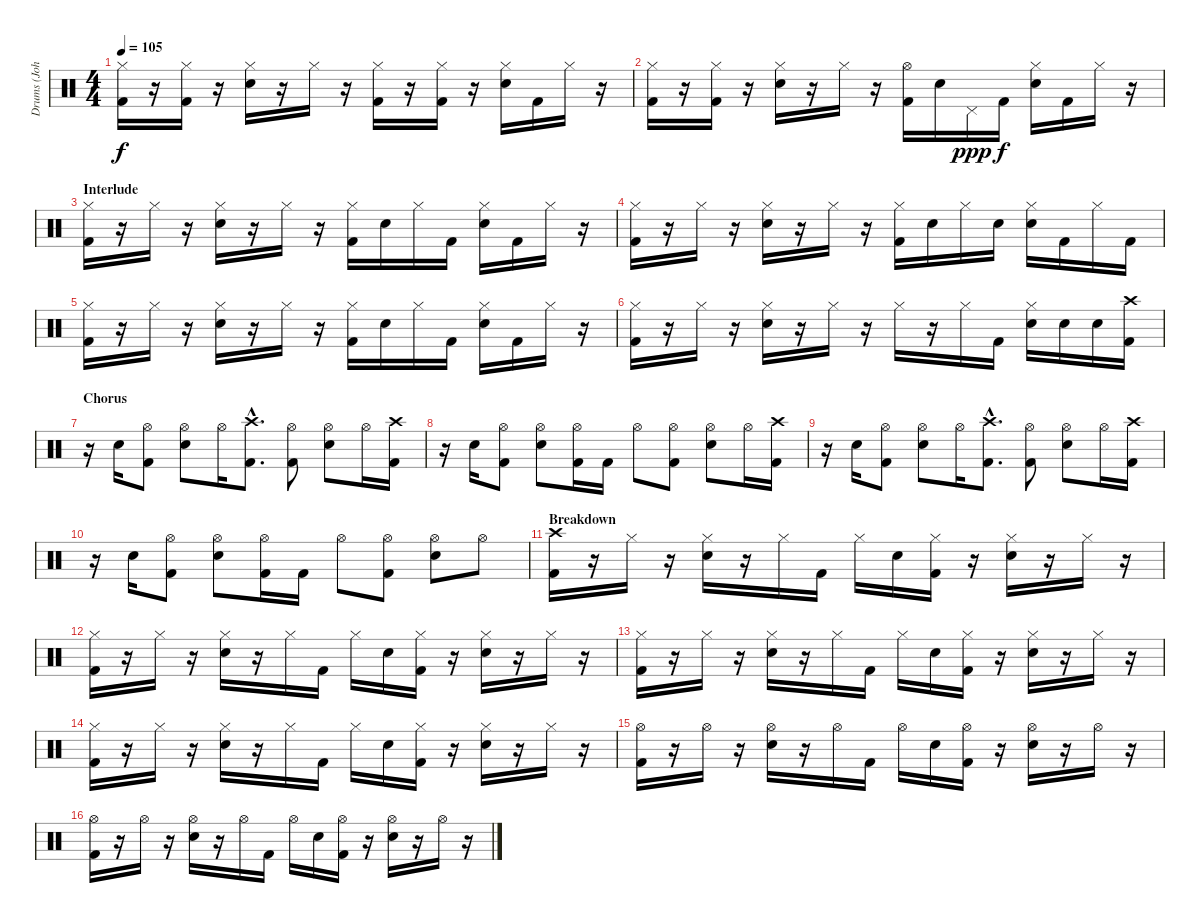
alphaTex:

\track ("Drums (John Otto)" "Drums (Joh") {instrument percussion}
\staff {score}
\articulation defaults
\ts (4 4)
\tempo 105
\clef neutral
\ks c
("Hi-Hat (closed)" "Kick (hit) 2").16{dy f} r.16 ("Hi-Hat (closed)" "Kick (hit) 2").16 r.16 ("Hi-Hat (closed)" "Electric Snare (hit)").16 r.16 "Hi-Hat (closed)".16 r.16 ("Hi-Hat (closed)" "Kick (hit) 2").16 r.16 ("Hi-Hat (closed)" "Kick (hit) 2").16 r.16 ("Hi-Hat (closed)" "Electric Snare (hit)").16 "Kick (hit) 2".16 "Hi-Hat (closed)".16 r.16 |
("Hi-Hat (closed)" "Kick (hit) 2").16 r.16 ("Hi-Hat (closed)" "Kick (hit) 2").16 r.16 ("Hi-Hat (closed)" "Electric Snare (hit)").16 r.16 "Hi-Hat (closed)".16 r.16 ("Hi-Hat (open)" "Kick (hit) 2").16 "Electric Snare (hit)".16 "Pedal Hi-Hat (hit)".16{dy ppp} "Kick (hit) 2".16{dy f} ("Hi-Hat (closed)" "Electric Snare (hit)").16 "Kick (hit) 2".16 "Hi-Hat (closed)".16 r.16 |
\section ("" "Interlude")
("Hi-Hat (closed)" "Kick (hit) 2").16 r.16 "Hi-Hat (closed)".16 r.16 ("Hi-Hat (closed)" "Electric Snare (hit)").16 r.16 "Hi-Hat (closed)".16 r.16 ("Hi-Hat (closed)" "Kick (hit) 2").16 "Electric Snare (hit)".16 "Hi-Hat (closed)".16 "Kick (hit) 2".16 ("Hi-Hat (closed)" "Electric Snare (hit)").16 "Kick (hit) 2".16 "Hi-Hat (closed)".16 r.16 |
("Hi-Hat (closed)" "Kick (hit) 2").16 r.16 "Hi-Hat (closed)".16 r.16 ("Hi-Hat (closed)" "Electric Snare (hit)").16 r.16 "Hi-Hat (closed)".16 r.16 ("Hi-Hat (closed)" "Kick (hit) 2").16 "Electric Snare (hit)".16 "Hi-Hat (closed)".16 "Electric Snare (hit)".16 ("Hi-Hat (closed)" "Electric Snare (hit)").16 "Kick (hit) 2".16 "Hi-Hat (closed)".16 "Kick (hit) 2".16 |
("Hi-Hat (closed)" "Kick (hit) 2").16 r.16 "Hi-Hat (closed)".16 r.16 ("Hi-Hat (closed)" "Electric Snare (hit)").16 r.16 "Hi-Hat (closed)".16 r.16 ("Hi-Hat (closed)" "Kick (hit) 2").16 "Electric Snare (hit)".16 "Hi-Hat (closed)".16 "Kick (hit) 2".16 ("Hi-Hat (closed)" "Electric Snare (hit)").16 "Kick (hit) 2".16 "Hi-Hat (closed)".16 r.16 |
("Hi-Hat (closed)" "Kick (hit) 2").16 r.16 "Hi-Hat (closed)".16 r.16 ("Hi-Hat (closed)" "Electric Snare (hit)").16 r.16 "Hi-Hat (closed)".16 r.16 "Hi-Hat (closed)".16 r.16 "Hi-Hat (closed)".16 "Kick (hit) 2".16 ("Hi-Hat (closed)" "Electric Snare (hit)").16 "Electric Snare (hit)".16 "Electric Snare (hit)".16 ("Crash high (hit)" "Kick (hit) 2").16 |
\section ("" "Chorus")
r.16 "Electric Snare (hit)".16 ("Hi-Hat (open)" "Kick (hit) 2").8 ("Hi-Hat (open)" "Electric Snare (hit)").8 "Hi-Hat (open)".16 ("Crash high (hit)"{hac} "Kick (hit) 2"{hac}).8{d} ("Hi-Hat (open)" "Kick (hit) 2").8 ("Hi-Hat (open)" "Electric Snare (hit)").8 "Hi-Hat (open)".16 ("Crash high (hit)" "Kick (hit) 2").16 |
r.16 "Electric Snare (hit)".16 ("Hi-Hat (open)" "Kick (hit) 2").8 ("Hi-Hat (open)" "Electric Snare (hit)").8 ("Hi-Hat (open)" "Kick (hit) 2").16 "Kick (hit) 2".16 "Hi-Hat (open)".8 ("Hi-Hat (open)" "Kick (hit) 2").8 ("Hi-Hat (open)" "Electric Snare (hit)").8 "Hi-Hat (open)".16 ("Crash high (hit)" "Kick (hit) 2").16 |
r.16 "Electric Snare (hit)".16 ("Hi-Hat (open)" "Kick (hit) 2").8 ("Hi-Hat (open)" "Electric Snare (hit)").8 "Hi-Hat (open)".16 ("Crash high (hit)"{hac} "Kick (hit) 2"{hac}).8{d} ("Hi-Hat (open)" "Kick (hit) 2").8 ("Hi-Hat (open)" "Electric Snare (hit)").8 "Hi-Hat (open)".16 ("Crash high (hit)" "Kick (hit) 2").16 |
r.16 "Electric Snare (hit)".16 ("Hi-Hat (open)" "Kick (hit) 2").8 ("Hi-Hat (open)" "Electric Snare (hit)").8 ("Hi-Hat (open)" "Kick (hit) 2").16 "Kick (hit) 2".16 "Hi-Hat (open)".8 ("Hi-Hat (open)" "Kick (hit) 2").8 ("Hi-Hat (open)" "Electric Snare (hit)").8 "Hi-Hat (open)".8 |
\section ("" "Breakdown")
("Crash high (hit)" "Kick (hit) 2").16 r.16 "Hi-Hat (closed)".16 r.16 ("Hi-Hat (closed)" "Electric Snare (hit)").16 r.16 "Hi-Hat (closed)".16 "Kick (hit) 2".16 "Hi-Hat (closed)".16 "Electric Snare (hit)".16 ("Hi-Hat (closed)" "Kick (hit) 2").16 r.16 ("Hi-Hat (closed)" "Electric Snare (hit)").16 r.16 "Hi-Hat (closed)".16 r.16 |
("Hi-Hat (closed)" "Kick (hit) 2").16 r.16 "Hi-Hat (closed)".16 r.16 ("Hi-Hat (closed)" "Electric Snare (hit)").16 r.16 "Hi-Hat (closed)".16 "Kick (hit) 2".16 "Hi-Hat (closed)".16 "Electric Snare (hit)".16 ("Hi-Hat (closed)" "Kick (hit) 2").16 r.16 ("Hi-Hat (closed)" "Electric Snare (hit)").16 r.16 "Hi-Hat (closed)".16 r.16 |
("Hi-Hat (closed)" "Kick (hit) 2").16 r.16 "Hi-Hat (closed)".16 r.16 ("Hi-Hat (closed)" "Electric Snare (hit)").16 r.16 "Hi-Hat (closed)".16 "Kick (hit) 2".16 "Hi-Hat (closed)".16 "Electric Snare (hit)".16 ("Hi-Hat (closed)" "Kick (hit) 2").16 r.16 ("Hi-Hat (closed)" "Electric Snare (hit)").16 r.16 "Hi-Hat (closed)".16 r.16 |
("Hi-Hat (closed)" "Kick (hit) 2").16 r.16 "Hi-Hat (closed)".16 r.16 ("Hi-Hat (closed)" "Electric Snare (hit)").16 r.16 "Hi-Hat (closed)".16 "Kick (hit) 2".16 "Hi-Hat (closed)".16 "Electric Snare (hit)".16 ("Hi-Hat (closed)" "Kick (hit) 2").16 r.16 ("Hi-Hat (closed)" "Electric Snare (hit)").16 r.16 "Hi-Hat (closed)".16 r.16 |
("Hi-Hat (open)" "Kick (hit) 2").16 r.16 "Hi-Hat (open)".16 r.16 ("Hi-Hat (open)" "Electric Snare (hit)").16 r.16 "Hi-Hat (open)".16 "Kick (hit) 2".16 "Hi-Hat (open)".16 "Electric Snare (hit)".16 ("Hi-Hat (open)" "Kick (hit) 2").16 r.16 ("Hi-Hat (open)" "Electric Snare (hit)").16 r.16 "Hi-Hat (open)".16 r.16 |
("Hi-Hat (open)" "Kick (hit) 2").16 r.16 "Hi-Hat (open)".16 r.16 ("Hi-Hat (open)" "Electric Snare (hit)").16 r.16 "Hi-Hat (open)".16 "Kick (hit) 2".16 "Hi-Hat (open)".16 "Electric Snare (hit)".16 ("Hi-Hat (open)" "Kick (hit) 2").16 r.16 ("Hi-Hat (open)" "Electric Snare (hit)").16 r.16 "Hi-Hat (open)".16 r.16
